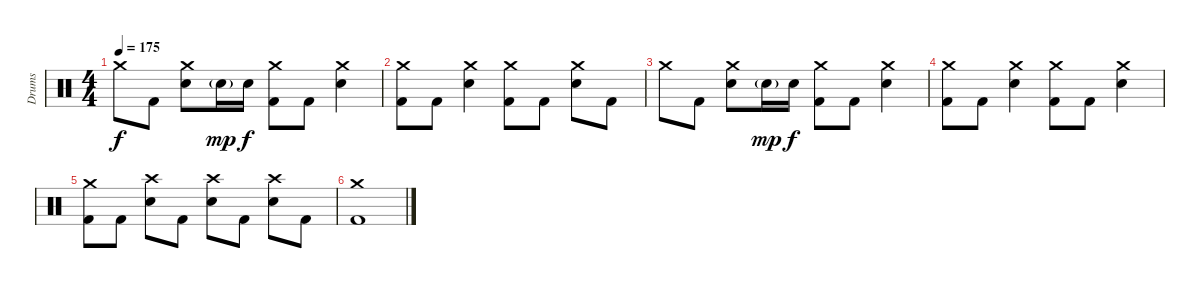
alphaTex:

\track ("Drums" "Drums") {instrument percussion}
\staff {score}
\articulation defaults
\ts (4 4)
\tempo 175
\clef neutral
\ks c "Crash medium (hit)".8{dy f} "Kick (hit) 2".8
("Crash medium (hit)" "Electric Snare (hit)").8 "Electric Snare (hit)"{g}.16{dy mp} "Electric Snare (hit)".16{dy f} ("Crash medium (hit)" "Kick (hit) 2").8 "Kick (hit) 2".8 ("Crash medium (hit)" "Electric Snare (hit)").4 |
("Crash medium (hit)" "Kick (hit) 2").8 "Kick (hit) 2".8 ("Crash medium (hit)" "Electric Snare (hit)").4 ("Crash medium (hit)" "Kick (hit) 2").8 "Kick (hit) 2".8 ("Crash medium (hit)" "Electric Snare (hit)").8 "Kick (hit) 2".8 |
"Crash medium (hit)".8 "Kick (hit) 2".8 ("Crash medium (hit)" "Electric Snare (hit)").8 "Electric Snare (hit)"{g}.16{dy mp} "Electric Snare (hit)".16{dy f} ("Crash medium (hit)" "Kick (hit) 2").8 "Kick (hit) 2".8 ("Crash medium (hit)" "Electric Snare (hit)").4 |
("Crash medium (hit)" "Kick (hit) 2").8 "Kick (hit) 2".8 ("Crash medium (hit)" "Electric Snare (hit)").4 ("Crash medium (hit)" "Kick (hit) 2").8 "Kick (hit) 2".8 ("Crash medium (hit)" "Electric Snare (hit)").4 |
("Crash medium (hit)" "Kick (hit) 2").8 "Kick (hit) 2".8 ("Crash high (hit)" "Electric Snare (hit)").8 "Kick (hit) 2".8 ("Crash high (hit)" "Electric Snare (hit)").8 "Kick (hit) 2".8 ("Crash high (hit)" "Electric Snare (hit)").8 "Kick (hit) 2".8 |
("Crash medium (hit)" "Kick (hit) 2").1
